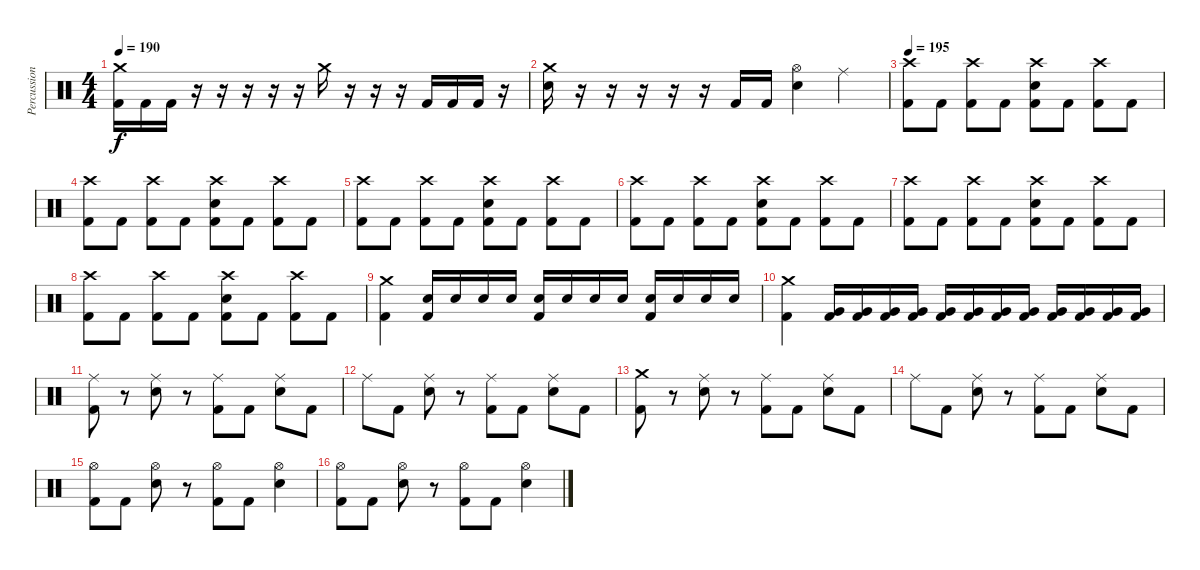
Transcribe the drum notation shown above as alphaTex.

\track ("Percussion" "Percussion") {instrument percussion}
\staff {score}
\articulation defaults
\ts (4 4)
\tempo 190
\clef neutral
\ks c
("Crash medium (hit)" "Kick (hit) 2").16{dy f} "Kick (hit) 2".16 "Kick (hit) 2".16 r.16 r.16 r.16 r.16 r.16 "Crash medium (hit)".16 r.16 r.16 r.16 "Kick (hit) 2".16 "Kick (hit) 2".16 "Kick (hit) 2".16 r.16 |
("Crash medium (hit)" "Electric Snare (hit)").16 r.16 r.16 r.16 r.16 r.16 "Kick (hit) 2".16 "Kick (hit) 2".16 ("Hi-Hat (open)" "Electric Snare (hit)").4 "Ride (middle)".4 |
\tempo 195
("Crash high (hit)" "Kick (hit) 2").8 "Kick (hit) 2".8 ("Crash high (hit)" "Kick (hit) 2").8 "Kick (hit) 2".8 ("Crash high (hit)" "Electric Snare (hit)" "Kick (hit) 2").8 "Kick (hit) 2".8 ("Crash high (hit)" "Kick (hit) 2").8 "Kick (hit) 2".8 |
("Crash high (hit)" "Kick (hit) 2").8 "Kick (hit) 2".8 ("Crash high (hit)" "Kick (hit) 2").8 "Kick (hit) 2".8 ("Crash high (hit)" "Electric Snare (hit)" "Kick (hit) 2").8 "Kick (hit) 2".8 ("Crash high (hit)" "Kick (hit) 2").8 "Kick (hit) 2".8 |
("Crash high (hit)" "Kick (hit) 2").8 "Kick (hit) 2".8 ("Crash high (hit)" "Kick (hit) 2").8 "Kick (hit) 2".8 ("Crash high (hit)" "Electric Snare (hit)" "Kick (hit) 2").8 "Kick (hit) 2".8 ("Crash high (hit)" "Kick (hit) 2").8 "Kick (hit) 2".8 |
("Crash high (hit)" "Kick (hit) 2").8 "Kick (hit) 2".8 ("Crash high (hit)" "Kick (hit) 2").8 "Kick (hit) 2".8 ("Crash high (hit)" "Electric Snare (hit)" "Kick (hit) 2").8 "Kick (hit) 2".8 ("Crash high (hit)" "Kick (hit) 2").8 "Kick (hit) 2".8 |
("Crash high (hit)" "Kick (hit) 2").8 "Kick (hit) 2".8 ("Crash high (hit)" "Kick (hit) 2").8 "Kick (hit) 2".8 ("Crash high (hit)" "Electric Snare (hit)" "Kick (hit) 2").8 "Kick (hit) 2".8 ("Crash high (hit)" "Kick (hit) 2").8 "Kick (hit) 2".8 |
("Crash high (hit)" "Kick (hit) 2").8 "Kick (hit) 2".8 ("Crash high (hit)" "Kick (hit) 2").8 "Kick (hit) 2".8 ("Crash high (hit)" "Electric Snare (hit)" "Kick (hit) 2").8 "Kick (hit) 2".8 ("Crash high (hit)" "Kick (hit) 2").8 "Kick (hit) 2".8 |
("Crash medium (hit)" "Kick (hit) 2").4 ("Electric Snare (hit)" "Kick (hit) 2").16 "Electric Snare (hit)".16 "Electric Snare (hit)".16 "Electric Snare (hit)".16 ("Electric Snare (hit)" "Kick (hit) 2").16 "Electric Snare (hit)".16 "Electric Snare (hit)".16 "Electric Snare (hit)".16 ("Electric Snare (hit)" "Kick (hit) 2").16 "Electric Snare (hit)".16 "Electric Snare (hit)".16 "Electric Snare (hit)".16 |
("Crash medium (hit)" "Kick (hit) 2").4 ("Very Low Tom (hit)" "Kick (hit) 2").16 ("Very Low Tom (hit)" "Kick (hit) 2").16 ("Very Low Tom (hit)" "Kick (hit) 2").16 ("Very Low Tom (hit)" "Kick (hit) 2").16 ("Very Low Tom (hit)" "Kick (hit) 2").16 ("Very Low Tom (hit)" "Kick (hit) 2").16 ("Very Low Tom (hit)" "Kick (hit) 2").16 ("Very Low Tom (hit)" "Kick (hit) 2").16 ("Very Low Tom (hit)" "Kick (hit) 2").16 ("Very Low Tom (hit)" "Kick (hit) 2").16 ("Very Low Tom (hit)" "Kick (hit) 2").16 ("Very Low Tom (hit)" "Kick (hit) 2").16 |
("Ride (middle)" "Kick (hit) 2").8 r.8 ("Ride (middle)" "Electric Snare (hit)").8 r.8 ("Ride (middle)" "Kick (hit) 2").8 "Kick (hit) 2".8 ("Ride (middle)" "Electric Snare (hit)").8 "Kick (hit) 2".8 |
"Ride (middle)".8 "Kick (hit) 2".8 ("Ride (middle)" "Electric Snare (hit)").8 r.8 ("Ride (middle)" "Kick (hit) 2").8 "Kick (hit) 2".8 ("Ride (middle)" "Electric Snare (hit)").8 "Kick (hit) 2".8 |
("Crash medium (hit)" "Kick (hit) 2").8 r.8 ("Ride (middle)" "Electric Snare (hit)").8 r.8 ("Ride (middle)" "Kick (hit) 2").8 "Kick (hit) 2".8 ("Ride (middle)" "Electric Snare (hit)").8 "Kick (hit) 2".8 |
"Ride (middle)".8 "Kick (hit) 2".8 ("Ride (middle)" "Electric Snare (hit)").8 r.8 ("Ride (middle)" "Kick (hit) 2").8 "Kick (hit) 2".8 ("Ride (middle)" "Electric Snare (hit)").8 "Kick (hit) 2".8 |
("Hi-Hat (open)" "Kick (hit) 2").8 "Kick (hit) 2".8 ("Hi-Hat (open)" "Electric Snare (hit)").8 r.8 ("Hi-Hat (open)" "Kick (hit) 2").8 "Kick (hit) 2".8 ("Hi-Hat (open)" "Electric Snare (hit)").4 |
("Hi-Hat (open)" "Kick (hit) 2").8 "Kick (hit) 2".8 ("Hi-Hat (open)" "Electric Snare (hit)").8 r.8 ("Hi-Hat (open)" "Kick (hit) 2").8 "Kick (hit) 2".8 ("Hi-Hat (open)" "Electric Snare (hit)").4
